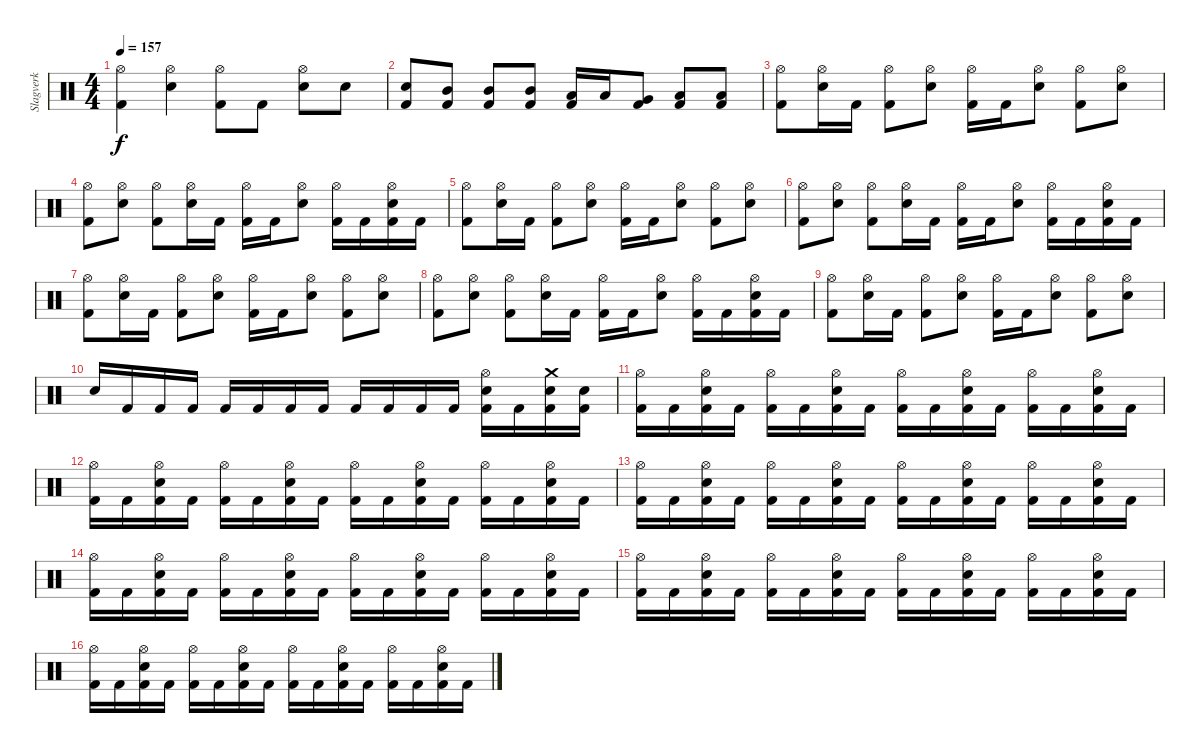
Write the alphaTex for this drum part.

\track ("Slagverk" "Slagverk") {instrument percussion}
\staff {score}
\articulation defaults
\ts (4 4)
\tempo 157
\clef neutral
\ks c
("Hi-Hat (open)" "Kick (hit) 2").4{dy f} ("Hi-Hat (open)" "Snare (hit) 2").4 ("Hi-Hat (open)" "Kick (hit) 2").8 "Kick (hit) 2".8 ("Snare (hit) 2" "Hi-Hat (open)").8 "Snare (hit) 2".8 |
("Kick (hit) 2" "Snare (hit) 2").8 ("Kick (hit) 2" "Mid Tom (hit)").8 ("Kick (hit) 2" "Mid Tom (hit)").8 ("Kick (hit) 2" "Mid Tom (hit)").8 ("Kick (hit) 2" "Low Tom (hit)").16 "Low Tom (hit)".16 ("Kick (hit) 2" "Very Low Tom (hit)").8 ("Kick (hit) 2" "Low Floor Tom (hit)").8 ("Kick (hit) 2" "Low Floor Tom (hit)").8 |
("Kick (hit) 2" "Hi-Hat (open)").8 ("Snare (hit) 2" "Hi-Hat (open)").16 "Kick (hit) 2".16 ("Kick (hit) 2" "Hi-Hat (open)").8 ("Snare (hit) 2" "Hi-Hat (open)").8 ("Kick (hit) 2" "Hi-Hat (open)").16 "Kick (hit) 2".16 ("Snare (hit) 2" "Hi-Hat (open)").8 ("Kick (hit) 2" "Hi-Hat (open)").8 ("Snare (hit) 2" "Hi-Hat (open)").8 |
("Kick (hit) 2" "Hi-Hat (open)").8 ("Snare (hit) 2" "Hi-Hat (open)").8 ("Kick (hit) 2" "Hi-Hat (open)").8 ("Snare (hit) 2" "Hi-Hat (open)").16 "Kick (hit) 2".16 ("Kick (hit) 2" "Hi-Hat (open)").16 "Kick (hit) 2".16 ("Snare (hit) 2" "Hi-Hat (open)").8 ("Kick (hit) 2" "Hi-Hat (open)").16 "Kick (hit) 2".16 ("Kick (hit) 2" "Snare (hit) 2" "Hi-Hat (open)").16 "Kick (hit) 2".16 |
("Kick (hit) 2" "Hi-Hat (open)").8 ("Snare (hit) 2" "Hi-Hat (open)").16 "Kick (hit) 2".16 ("Kick (hit) 2" "Hi-Hat (open)").8 ("Snare (hit) 2" "Hi-Hat (open)").8 ("Kick (hit) 2" "Hi-Hat (open)").16 "Kick (hit) 2".16 ("Snare (hit) 2" "Hi-Hat (open)").8 ("Kick (hit) 2" "Hi-Hat (open)").8 ("Snare (hit) 2" "Hi-Hat (open)").8 |
("Kick (hit) 2" "Hi-Hat (open)").8 ("Snare (hit) 2" "Hi-Hat (open)").8 ("Kick (hit) 2" "Hi-Hat (open)").8 ("Snare (hit) 2" "Hi-Hat (open)").16 "Kick (hit) 2".16 ("Kick (hit) 2" "Hi-Hat (open)").16 "Kick (hit) 2".16 ("Snare (hit) 2" "Hi-Hat (open)").8 ("Kick (hit) 2" "Hi-Hat (open)").16 "Kick (hit) 2".16 ("Kick (hit) 2" "Snare (hit) 2" "Hi-Hat (open)").16 "Kick (hit) 2".16 |
("Kick (hit) 2" "Hi-Hat (open)").8 ("Snare (hit) 2" "Hi-Hat (open)").16 "Kick (hit) 2".16 ("Kick (hit) 2" "Hi-Hat (open)").8 ("Snare (hit) 2" "Hi-Hat (open)").8 ("Kick (hit) 2" "Hi-Hat (open)").16 "Kick (hit) 2".16 ("Snare (hit) 2" "Hi-Hat (open)").8 ("Kick (hit) 2" "Hi-Hat (open)").8 ("Snare (hit) 2" "Hi-Hat (open)").8 |
("Kick (hit) 2" "Hi-Hat (open)").8 ("Snare (hit) 2" "Hi-Hat (open)").8 ("Kick (hit) 2" "Hi-Hat (open)").8 ("Snare (hit) 2" "Hi-Hat (open)").16 "Kick (hit) 2".16 ("Kick (hit) 2" "Hi-Hat (open)").16 "Kick (hit) 2".16 ("Snare (hit) 2" "Hi-Hat (open)").8 ("Kick (hit) 2" "Hi-Hat (open)").16 "Kick (hit) 2".16 ("Kick (hit) 2" "Snare (hit) 2" "Hi-Hat (open)").16 "Kick (hit) 2".16 |
("Kick (hit) 2" "Hi-Hat (open)").8 ("Snare (hit) 2" "Hi-Hat (open)").16 "Kick (hit) 2".16 ("Kick (hit) 2" "Hi-Hat (open)").8 ("Snare (hit) 2" "Hi-Hat (open)").8 ("Kick (hit) 2" "Hi-Hat (open)").16 "Kick (hit) 2".16 ("Snare (hit) 2" "Hi-Hat (open)").8 ("Kick (hit) 2" "Hi-Hat (open)").8 ("Snare (hit) 2" "Hi-Hat (open)").8 |
"Snare (hit) 2".16 "Kick (hit) 2".16 "Kick (hit) 2".16 "Kick (hit) 2".16 "Kick (hit) 2".16 "Kick (hit) 2".16 "Kick (hit) 2".16 "Kick (hit) 2".16 "Kick (hit) 2".16 "Kick (hit) 2".16 "Kick (hit) 2".16 "Kick (hit) 2".16 ("Hi-Hat (open)" "Electric Snare (hit)" "Kick (hit) 2").16 "Kick (hit) 2".16 ("Crash medium (hit)" "Electric Snare (hit)" "Kick (hit) 2").16 ("Electric Snare (hit)" "Kick (hit) 2").16 |
("Hi-Hat (open)" "Kick (hit) 2").16 "Kick (hit) 2".16 ("Snare (hit) 2" "Hi-Hat (open)" "Kick (hit) 2").16 "Kick (hit) 2".16 ("Hi-Hat (open)" "Kick (hit) 2").16 "Kick (hit) 2".16 ("Snare (hit) 2" "Hi-Hat (open)" "Kick (hit) 2").16 "Kick (hit) 2".16 ("Hi-Hat (open)" "Kick (hit) 2").16 "Kick (hit) 2".16 ("Snare (hit) 2" "Hi-Hat (open)" "Kick (hit) 2").16 "Kick (hit) 2".16 ("Hi-Hat (open)" "Kick (hit) 2").16 "Kick (hit) 2".16 ("Snare (hit) 2" "Hi-Hat (open)" "Kick (hit) 2").16 "Kick (hit) 2".16 |
("Hi-Hat (open)" "Kick (hit) 2").16 "Kick (hit) 2".16 ("Snare (hit) 2" "Hi-Hat (open)" "Kick (hit) 2").16 "Kick (hit) 2".16 ("Hi-Hat (open)" "Kick (hit) 2").16 "Kick (hit) 2".16 ("Snare (hit) 2" "Hi-Hat (open)" "Kick (hit) 2").16 "Kick (hit) 2".16 ("Hi-Hat (open)" "Kick (hit) 2").16 "Kick (hit) 2".16 ("Snare (hit) 2" "Hi-Hat (open)" "Kick (hit) 2").16 "Kick (hit) 2".16 ("Hi-Hat (open)" "Kick (hit) 2").16 "Kick (hit) 2".16 ("Snare (hit) 2" "Hi-Hat (open)" "Kick (hit) 2").16 "Kick (hit) 2".16 |
("Hi-Hat (open)" "Kick (hit) 2").16 "Kick (hit) 2".16 ("Snare (hit) 2" "Hi-Hat (open)" "Kick (hit) 2").16 "Kick (hit) 2".16 ("Hi-Hat (open)" "Kick (hit) 2").16 "Kick (hit) 2".16 ("Snare (hit) 2" "Hi-Hat (open)" "Kick (hit) 2").16 "Kick (hit) 2".16 ("Hi-Hat (open)" "Kick (hit) 2").16 "Kick (hit) 2".16 ("Snare (hit) 2" "Hi-Hat (open)" "Kick (hit) 2").16 "Kick (hit) 2".16 ("Hi-Hat (open)" "Kick (hit) 2").16 "Kick (hit) 2".16 ("Snare (hit) 2" "Hi-Hat (open)" "Kick (hit) 2").16 "Kick (hit) 2".16 |
("Hi-Hat (open)" "Kick (hit) 2").16 "Kick (hit) 2".16 ("Snare (hit) 2" "Hi-Hat (open)" "Kick (hit) 2").16 "Kick (hit) 2".16 ("Hi-Hat (open)" "Kick (hit) 2").16 "Kick (hit) 2".16 ("Snare (hit) 2" "Hi-Hat (open)" "Kick (hit) 2").16 "Kick (hit) 2".16 ("Hi-Hat (open)" "Kick (hit) 2").16 "Kick (hit) 2".16 ("Snare (hit) 2" "Hi-Hat (open)" "Kick (hit) 2").16 "Kick (hit) 2".16 ("Hi-Hat (open)" "Kick (hit) 2").16 "Kick (hit) 2".16 ("Snare (hit) 2" "Hi-Hat (open)" "Kick (hit) 2").16 "Kick (hit) 2".16 |
("Hi-Hat (open)" "Kick (hit) 2").16 "Kick (hit) 2".16 ("Snare (hit) 2" "Hi-Hat (open)" "Kick (hit) 2").16 "Kick (hit) 2".16 ("Hi-Hat (open)" "Kick (hit) 2").16 "Kick (hit) 2".16 ("Snare (hit) 2" "Hi-Hat (open)" "Kick (hit) 2").16 "Kick (hit) 2".16 ("Hi-Hat (open)" "Kick (hit) 2").16 "Kick (hit) 2".16 ("Snare (hit) 2" "Hi-Hat (open)" "Kick (hit) 2").16 "Kick (hit) 2".16 ("Hi-Hat (open)" "Kick (hit) 2").16 "Kick (hit) 2".16 ("Snare (hit) 2" "Hi-Hat (open)" "Kick (hit) 2").16 "Kick (hit) 2".16 |
("Hi-Hat (open)" "Kick (hit) 2").16 "Kick (hit) 2".16 ("Snare (hit) 2" "Hi-Hat (open)" "Kick (hit) 2").16 "Kick (hit) 2".16 ("Hi-Hat (open)" "Kick (hit) 2").16 "Kick (hit) 2".16 ("Snare (hit) 2" "Hi-Hat (open)" "Kick (hit) 2").16 "Kick (hit) 2".16 ("Hi-Hat (open)" "Kick (hit) 2").16 "Kick (hit) 2".16 ("Snare (hit) 2" "Hi-Hat (open)" "Kick (hit) 2").16 "Kick (hit) 2".16 ("Hi-Hat (open)" "Kick (hit) 2").16 "Kick (hit) 2".16 ("Snare (hit) 2" "Hi-Hat (open)" "Kick (hit) 2").16 "Kick (hit) 2".16
